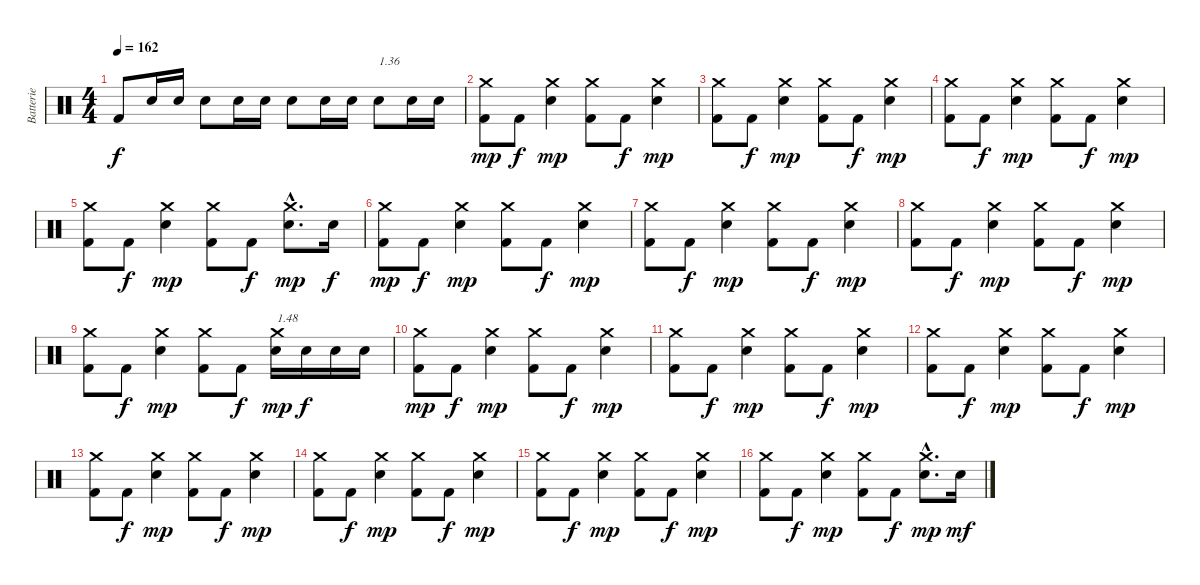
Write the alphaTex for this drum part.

\track ("Batterie" "Batterie") {instrument percussion}
\staff {score}
\articulation defaults
\ts (4 4)
\tempo 162
\clef neutral
\ks c "Kick (hit) 2".8{dy f} "Electric Snare (hit)".16 "Electric Snare (hit)".16 "Electric Snare (hit)".8 "Electric Snare (hit)".16 "Electric Snare (hit)".16 "Electric Snare (hit)".8 "Electric Snare (hit)".16 "Electric Snare (hit)".16 "Electric Snare (hit)".8{txt "1.36"} "Electric Snare (hit)".16 "Electric Snare (hit)".16
|
("Kick (hit) 2" "Crash medium (hit)").8{dy mp} "Kick (hit) 2".8{dy f} ("Electric Snare (hit)" "Crash medium (hit)").4{dy mp} ("Kick (hit) 2" "Crash medium (hit)").8 "Kick (hit) 2".8{dy f} ("Electric Snare (hit)" "Crash medium (hit)").4{dy mp} |
("Kick (hit) 2" "Crash medium (hit)").8 "Kick (hit) 2".8{dy f} ("Electric Snare (hit)" "Crash medium (hit)").4{dy mp} ("Kick (hit) 2" "Crash medium (hit)").8 "Kick (hit) 2".8{dy f} ("Electric Snare (hit)" "Crash medium (hit)").4{dy mp} |
("Kick (hit) 2" "Crash medium (hit)").8 "Kick (hit) 2".8{dy f} ("Electric Snare (hit)" "Crash medium (hit)").4{dy mp} ("Kick (hit) 2" "Crash medium (hit)").8 "Kick (hit) 2".8{dy f} ("Electric Snare (hit)" "Crash medium (hit)").4{dy mp} |
("Kick (hit) 2" "Crash medium (hit)").8 "Kick (hit) 2".8{dy f} ("Electric Snare (hit)" "Crash medium (hit)").4{dy mp} ("Kick (hit) 2" "Crash medium (hit)").8 "Kick (hit) 2".8{dy f} ("Electric Snare (hit)"{hac} "Crash medium (hit)"{hac}).8{d dy mp} "Electric Snare (hit)".16{dy f} |
("Kick (hit) 2" "Crash medium (hit)").8{dy mp} "Kick (hit) 2".8{dy f} ("Electric Snare (hit)" "Crash medium (hit)").4{dy mp} ("Kick (hit) 2" "Crash medium (hit)").8 "Kick (hit) 2".8{dy f} ("Electric Snare (hit)" "Crash medium (hit)").4{dy mp} |
("Kick (hit) 2" "Crash medium (hit)").8 "Kick (hit) 2".8{dy f} ("Electric Snare (hit)" "Crash medium (hit)").4{dy mp} ("Kick (hit) 2" "Crash medium (hit)").8 "Kick (hit) 2".8{dy f} ("Electric Snare (hit)" "Crash medium (hit)").4{dy mp} |
("Kick (hit) 2" "Crash medium (hit)").8 "Kick (hit) 2".8{dy f} ("Electric Snare (hit)" "Crash medium (hit)").4{dy mp} ("Kick (hit) 2" "Crash medium (hit)").8 "Kick (hit) 2".8{dy f} ("Electric Snare (hit)" "Crash medium (hit)").4{dy mp} |
("Kick (hit) 2" "Crash medium (hit)").8 "Kick (hit) 2".8{dy f} ("Electric Snare (hit)" "Crash medium (hit)").4{dy mp} ("Kick (hit) 2" "Crash medium (hit)").8 "Kick (hit) 2".8{dy f} ("Electric Snare (hit)" "Crash medium (hit)").16{txt "1.48" dy mp} "Electric Snare (hit)".16{dy f} "Electric Snare (hit)".16 "Electric Snare (hit)".16 |
("Kick (hit) 2" "Crash medium (hit)").8{dy mp} "Kick (hit) 2".8{dy f} ("Electric Snare (hit)" "Crash medium (hit)").4{dy mp} ("Kick (hit) 2" "Crash medium (hit)").8 "Kick (hit) 2".8{dy f} ("Electric Snare (hit)" "Crash medium (hit)").4{dy mp} |
("Kick (hit) 2" "Crash medium (hit)").8 "Kick (hit) 2".8{dy f} ("Electric Snare (hit)" "Crash medium (hit)").4{dy mp} ("Kick (hit) 2" "Crash medium (hit)").8 "Kick (hit) 2".8{dy f} ("Electric Snare (hit)" "Crash medium (hit)").4{dy mp} |
("Kick (hit) 2" "Crash medium (hit)").8 "Kick (hit) 2".8{dy f} ("Electric Snare (hit)" "Crash medium (hit)").4{dy mp} ("Kick (hit) 2" "Crash medium (hit)").8 "Kick (hit) 2".8{dy f} ("Electric Snare (hit)" "Crash medium (hit)").4{dy mp} |
("Kick (hit) 2" "Crash medium (hit)").8 "Kick (hit) 2".8{dy f} ("Electric Snare (hit)" "Crash medium (hit)").4{dy mp} ("Kick (hit) 2" "Crash medium (hit)").8 "Kick (hit) 2".8{dy f} ("Electric Snare (hit)" "Crash medium (hit)").4{dy mp} |
("Kick (hit) 2" "Crash medium (hit)").8 "Kick (hit) 2".8{dy f} ("Electric Snare (hit)" "Crash medium (hit)").4{dy mp} ("Kick (hit) 2" "Crash medium (hit)").8 "Kick (hit) 2".8{dy f} ("Electric Snare (hit)" "Crash medium (hit)").4{dy mp} |
("Kick (hit) 2" "Crash medium (hit)").8 "Kick (hit) 2".8{dy f} ("Electric Snare (hit)" "Crash medium (hit)").4{dy mp} ("Kick (hit) 2" "Crash medium (hit)").8 "Kick (hit) 2".8{dy f} ("Electric Snare (hit)" "Crash medium (hit)").4{dy mp} |
("Kick (hit) 2" "Crash medium (hit)").8 "Kick (hit) 2".8{dy f} ("Electric Snare (hit)" "Crash medium (hit)").4{dy mp} ("Kick (hit) 2" "Crash medium (hit)").8 "Kick (hit) 2".8{dy f} ("Electric Snare (hit)"{hac} "Crash medium (hit)"{hac}).8{d dy mp} "Electric Snare (hit)".16{dy mf}
